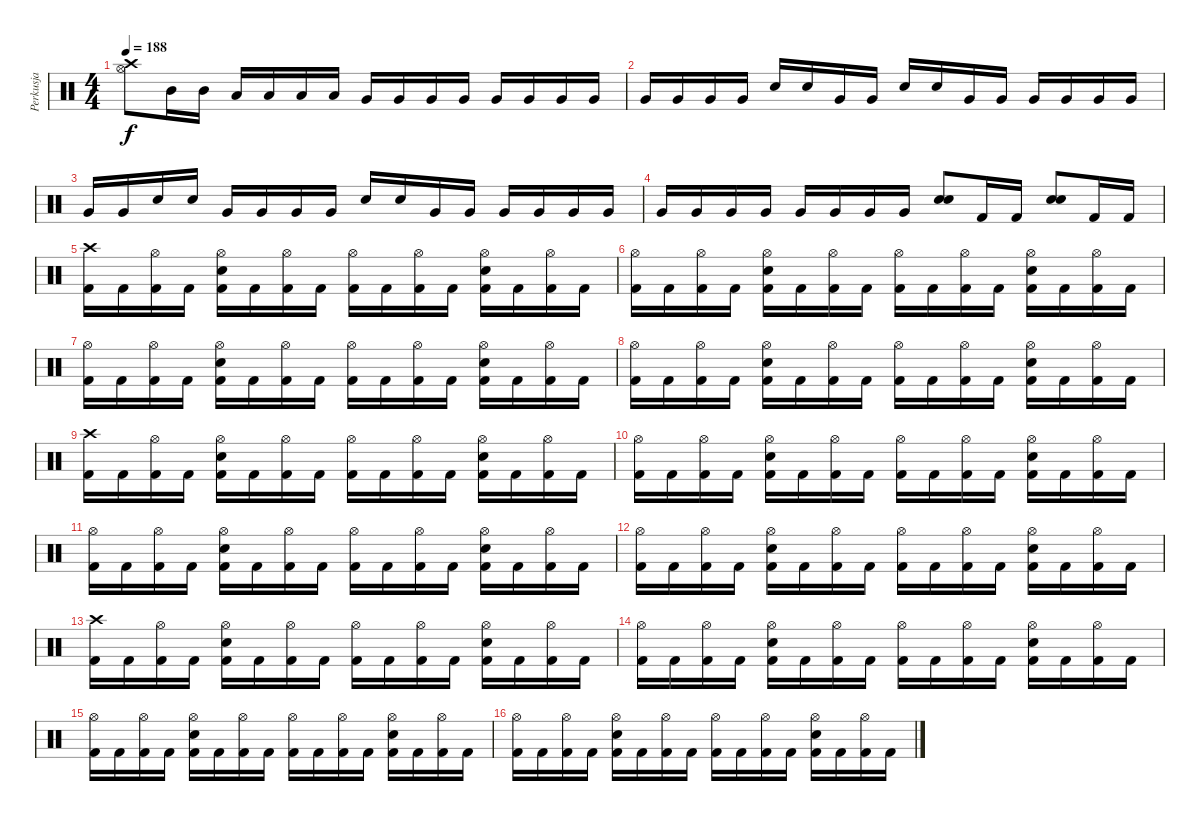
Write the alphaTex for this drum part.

\track ("Perkusja" "Perkusja") {instrument percussion}
\staff {score}
\articulation defaults
\ts (4 4)
\tempo 188
\clef neutral
\ks c
("Crash high (hit)" "Hi-Hat (open)").8{dy f} "Mid Tom (hit)".16 "Mid Tom (hit)".16 "Low Tom (hit)".16 "Low Tom (hit)".16 "Low Tom (hit)".16 "Low Tom (hit)".16 "Very Low Tom (hit)".16 "Very Low Tom (hit)".16 "Very Low Tom (hit)".16 "Very Low Tom (hit)".16 "Very Low Tom (hit)".16 "Very Low Tom (hit)".16 "Very Low Tom (hit)".16 "Very Low Tom (hit)".16 |
"Very Low Tom (hit)".16 "Very Low Tom (hit)".16 "Very Low Tom (hit)".16 "Very Low Tom (hit)".16 "Electric Snare (hit)".16 "Electric Snare (hit)".16 "Very Low Tom (hit)".16 "Very Low Tom (hit)".16 "Electric Snare (hit)".16 "Electric Snare (hit)".16 "Very Low Tom (hit)".16 "Very Low Tom (hit)".16 "Very Low Tom (hit)".16 "Very Low Tom (hit)".16 "Very Low Tom (hit)".16 "Very Low Tom (hit)".16 |
"Very Low Tom (hit)".16 "Very Low Tom (hit)".16 "Electric Snare (hit)".16 "Electric Snare (hit)".16 "Very Low Tom (hit)".16 "Very Low Tom (hit)".16 "Very Low Tom (hit)".16 "Very Low Tom (hit)".16 "Electric Snare (hit)".16 "Electric Snare (hit)".16 "Very Low Tom (hit)".16 "Very Low Tom (hit)".16 "Very Low Tom (hit)".16 "Very Low Tom (hit)".16 "Very Low Tom (hit)".16 "Very Low Tom (hit)".16 |
"Very Low Tom (hit)".16 "Very Low Tom (hit)".16 "Very Low Tom (hit)".16 "Very Low Tom (hit)".16 "Very Low Tom (hit)".16 "Very Low Tom (hit)".16 "Very Low Tom (hit)".16 "Very Low Tom (hit)".16 ("Electric Snare (hit)" "Electric Snare (hit)").8 "Kick (hit) 2".16 "Kick (hit) 2".16 ("Electric Snare (hit)" "Electric Snare (hit)").8 "Kick (hit) 2".16 "Kick (hit) 2".16 |
("Crash high (hit)" "Kick (hit) 2").16 "Kick (hit) 2".16 ("Hi-Hat (open)" "Kick (hit) 2").16 "Kick (hit) 2".16 ("Hi-Hat (open)" "Electric Snare (hit)" "Kick (hit) 2").16 "Kick (hit) 2".16 ("Hi-Hat (open)" "Kick (hit) 2").16 "Kick (hit) 2".16 ("Hi-Hat (open)" "Kick (hit) 2").16 "Kick (hit) 2".16 ("Hi-Hat (open)" "Kick (hit) 2").16 "Kick (hit) 2".16 ("Hi-Hat (open)" "Electric Snare (hit)" "Kick (hit) 2").16 "Kick (hit) 2".16 ("Hi-Hat (open)" "Kick (hit) 2").16 "Kick (hit) 2".16 |
("Hi-Hat (open)" "Kick (hit) 2").16 "Kick (hit) 2".16 ("Hi-Hat (open)" "Kick (hit) 2").16 "Kick (hit) 2".16 ("Hi-Hat (open)" "Electric Snare (hit)" "Kick (hit) 2").16 "Kick (hit) 2".16 ("Hi-Hat (open)" "Kick (hit) 2").16 "Kick (hit) 2".16 ("Hi-Hat (open)" "Kick (hit) 2").16 "Kick (hit) 2".16 ("Hi-Hat (open)" "Kick (hit) 2").16 "Kick (hit) 2".16 ("Hi-Hat (open)" "Electric Snare (hit)" "Kick (hit) 2").16 "Kick (hit) 2".16 ("Hi-Hat (open)" "Kick (hit) 2").16 "Kick (hit) 2".16 |
("Hi-Hat (open)" "Kick (hit) 2").16 "Kick (hit) 2".16 ("Hi-Hat (open)" "Kick (hit) 2").16 "Kick (hit) 2".16 ("Hi-Hat (open)" "Electric Snare (hit)" "Kick (hit) 2").16 "Kick (hit) 2".16 ("Hi-Hat (open)" "Kick (hit) 2").16 "Kick (hit) 2".16 ("Hi-Hat (open)" "Kick (hit) 2").16 "Kick (hit) 2".16 ("Hi-Hat (open)" "Kick (hit) 2").16 "Kick (hit) 2".16 ("Hi-Hat (open)" "Electric Snare (hit)" "Kick (hit) 2").16 "Kick (hit) 2".16 ("Hi-Hat (open)" "Kick (hit) 2").16 "Kick (hit) 2".16 |
("Hi-Hat (open)" "Kick (hit) 2").16 "Kick (hit) 2".16 ("Hi-Hat (open)" "Kick (hit) 2").16 "Kick (hit) 2".16 ("Hi-Hat (open)" "Electric Snare (hit)" "Kick (hit) 2").16 "Kick (hit) 2".16 ("Hi-Hat (open)" "Kick (hit) 2").16 "Kick (hit) 2".16 ("Hi-Hat (open)" "Kick (hit) 2").16 "Kick (hit) 2".16 ("Hi-Hat (open)" "Kick (hit) 2").16 "Kick (hit) 2".16 ("Hi-Hat (open)" "Electric Snare (hit)" "Kick (hit) 2").16 "Kick (hit) 2".16 ("Hi-Hat (open)" "Kick (hit) 2").16 "Kick (hit) 2".16 |
("Crash high (hit)" "Kick (hit) 2").16 "Kick (hit) 2".16 ("Hi-Hat (open)" "Kick (hit) 2").16 "Kick (hit) 2".16 ("Hi-Hat (open)" "Electric Snare (hit)" "Kick (hit) 2").16 "Kick (hit) 2".16 ("Hi-Hat (open)" "Kick (hit) 2").16 "Kick (hit) 2".16 ("Hi-Hat (open)" "Kick (hit) 2").16 "Kick (hit) 2".16 ("Hi-Hat (open)" "Kick (hit) 2").16 "Kick (hit) 2".16 ("Hi-Hat (open)" "Electric Snare (hit)" "Kick (hit) 2").16 "Kick (hit) 2".16 ("Hi-Hat (open)" "Kick (hit) 2").16 "Kick (hit) 2".16 |
("Hi-Hat (open)" "Kick (hit) 2").16 "Kick (hit) 2".16 ("Hi-Hat (open)" "Kick (hit) 2").16 "Kick (hit) 2".16 ("Hi-Hat (open)" "Electric Snare (hit)" "Kick (hit) 2").16 "Kick (hit) 2".16 ("Hi-Hat (open)" "Kick (hit) 2").16 "Kick (hit) 2".16 ("Hi-Hat (open)" "Kick (hit) 2").16 "Kick (hit) 2".16 ("Hi-Hat (open)" "Kick (hit) 2").16 "Kick (hit) 2".16 ("Hi-Hat (open)" "Electric Snare (hit)" "Kick (hit) 2").16 "Kick (hit) 2".16 ("Hi-Hat (open)" "Kick (hit) 2").16 "Kick (hit) 2".16 |
("Hi-Hat (open)" "Kick (hit) 2").16 "Kick (hit) 2".16 ("Hi-Hat (open)" "Kick (hit) 2").16 "Kick (hit) 2".16 ("Hi-Hat (open)" "Electric Snare (hit)" "Kick (hit) 2").16 "Kick (hit) 2".16 ("Hi-Hat (open)" "Kick (hit) 2").16 "Kick (hit) 2".16 ("Hi-Hat (open)" "Kick (hit) 2").16 "Kick (hit) 2".16 ("Hi-Hat (open)" "Kick (hit) 2").16 "Kick (hit) 2".16 ("Hi-Hat (open)" "Electric Snare (hit)" "Kick (hit) 2").16 "Kick (hit) 2".16 ("Hi-Hat (open)" "Kick (hit) 2").16 "Kick (hit) 2".16 |
("Hi-Hat (open)" "Kick (hit) 2").16 "Kick (hit) 2".16 ("Hi-Hat (open)" "Kick (hit) 2").16 "Kick (hit) 2".16 ("Hi-Hat (open)" "Electric Snare (hit)" "Kick (hit) 2").16 "Kick (hit) 2".16 ("Hi-Hat (open)" "Kick (hit) 2").16 "Kick (hit) 2".16 ("Hi-Hat (open)" "Kick (hit) 2").16 "Kick (hit) 2".16 ("Hi-Hat (open)" "Kick (hit) 2").16 "Kick (hit) 2".16 ("Hi-Hat (open)" "Electric Snare (hit)" "Kick (hit) 2").16 "Kick (hit) 2".16 ("Hi-Hat (open)" "Kick (hit) 2").16 "Kick (hit) 2".16 |
("Crash high (hit)" "Kick (hit) 2").16 "Kick (hit) 2".16 ("Hi-Hat (open)" "Kick (hit) 2").16 "Kick (hit) 2".16 ("Hi-Hat (open)" "Electric Snare (hit)" "Kick (hit) 2").16 "Kick (hit) 2".16 ("Hi-Hat (open)" "Kick (hit) 2").16 "Kick (hit) 2".16 ("Hi-Hat (open)" "Kick (hit) 2").16 "Kick (hit) 2".16 ("Hi-Hat (open)" "Kick (hit) 2").16 "Kick (hit) 2".16 ("Hi-Hat (open)" "Electric Snare (hit)" "Kick (hit) 2").16 "Kick (hit) 2".16 ("Hi-Hat (open)" "Kick (hit) 2").16 "Kick (hit) 2".16 |
("Hi-Hat (open)" "Kick (hit) 2").16 "Kick (hit) 2".16 ("Hi-Hat (open)" "Kick (hit) 2").16 "Kick (hit) 2".16 ("Hi-Hat (open)" "Electric Snare (hit)" "Kick (hit) 2").16 "Kick (hit) 2".16 ("Hi-Hat (open)" "Kick (hit) 2").16 "Kick (hit) 2".16 ("Hi-Hat (open)" "Kick (hit) 2").16 "Kick (hit) 2".16 ("Hi-Hat (open)" "Kick (hit) 2").16 "Kick (hit) 2".16 ("Hi-Hat (open)" "Electric Snare (hit)" "Kick (hit) 2").16 "Kick (hit) 2".16 ("Hi-Hat (open)" "Kick (hit) 2").16 "Kick (hit) 2".16 |
("Hi-Hat (open)" "Kick (hit) 2").16 "Kick (hit) 2".16 ("Hi-Hat (open)" "Kick (hit) 2").16 "Kick (hit) 2".16 ("Hi-Hat (open)" "Electric Snare (hit)" "Kick (hit) 2").16 "Kick (hit) 2".16 ("Hi-Hat (open)" "Kick (hit) 2").16 "Kick (hit) 2".16 ("Hi-Hat (open)" "Kick (hit) 2").16 "Kick (hit) 2".16 ("Hi-Hat (open)" "Kick (hit) 2").16 "Kick (hit) 2".16 ("Hi-Hat (open)" "Electric Snare (hit)" "Kick (hit) 2").16 "Kick (hit) 2".16 ("Hi-Hat (open)" "Kick (hit) 2").16 "Kick (hit) 2".16 |
("Hi-Hat (open)" "Kick (hit) 2").16 "Kick (hit) 2".16 ("Hi-Hat (open)" "Kick (hit) 2").16 "Kick (hit) 2".16 ("Hi-Hat (open)" "Electric Snare (hit)" "Kick (hit) 2").16 "Kick (hit) 2".16 ("Hi-Hat (open)" "Kick (hit) 2").16 "Kick (hit) 2".16 ("Hi-Hat (open)" "Kick (hit) 2").16 "Kick (hit) 2".16 ("Hi-Hat (open)" "Kick (hit) 2").16 "Kick (hit) 2".16 ("Hi-Hat (open)" "Electric Snare (hit)" "Kick (hit) 2").16 "Kick (hit) 2".16 ("Hi-Hat (open)" "Kick (hit) 2").16 "Kick (hit) 2".16
